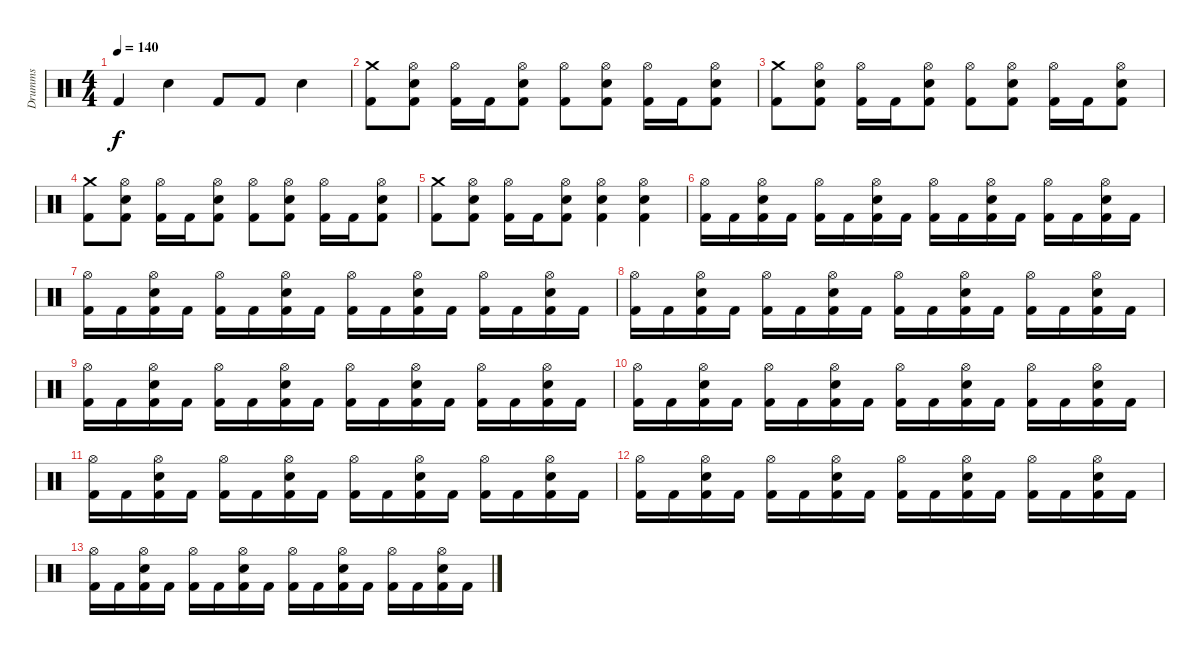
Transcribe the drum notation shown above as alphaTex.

\track ("Drumms" "Drumms") {instrument percussion}
\staff {score}
\articulation defaults
\ts (4 4)
\tempo 140
\clef neutral
\ks c "Kick (hit) 2".4{dy f} "Electric Snare (hit)".4 "Kick (hit) 2".8 "Kick (hit) 2".8 "Electric Snare (hit)".4
|
("Crash medium (hit)" "Kick (hit) 2").8 ("Hi-Hat (open)" "Electric Snare (hit)" "Kick (hit) 2").8 ("Hi-Hat (open)" "Kick (hit) 2").16 "Kick (hit) 2".16 ("Hi-Hat (open)" "Electric Snare (hit)" "Kick (hit) 2").8 ("Hi-Hat (open)" "Kick (hit) 2").8 ("Hi-Hat (open)" "Electric Snare (hit)" "Kick (hit) 2").8 ("Hi-Hat (open)" "Kick (hit) 2").16 "Kick (hit) 2".16 ("Hi-Hat (open)" "Electric Snare (hit)" "Kick (hit) 2").8 |
("Crash medium (hit)" "Kick (hit) 2").8 ("Hi-Hat (open)" "Electric Snare (hit)" "Kick (hit) 2").8 ("Hi-Hat (open)" "Kick (hit) 2").16 "Kick (hit) 2".16 ("Hi-Hat (open)" "Electric Snare (hit)" "Kick (hit) 2").8 ("Hi-Hat (open)" "Kick (hit) 2").8 ("Hi-Hat (open)" "Electric Snare (hit)" "Kick (hit) 2").8 ("Hi-Hat (open)" "Kick (hit) 2").16 "Kick (hit) 2".16 ("Hi-Hat (open)" "Electric Snare (hit)" "Kick (hit) 2").8 |
("Crash medium (hit)" "Kick (hit) 2").8 ("Hi-Hat (open)" "Electric Snare (hit)" "Kick (hit) 2").8 ("Hi-Hat (open)" "Kick (hit) 2").16 "Kick (hit) 2".16 ("Hi-Hat (open)" "Electric Snare (hit)" "Kick (hit) 2").8 ("Hi-Hat (open)" "Kick (hit) 2").8 ("Hi-Hat (open)" "Electric Snare (hit)" "Kick (hit) 2").8 ("Hi-Hat (open)" "Kick (hit) 2").16 "Kick (hit) 2".16 ("Hi-Hat (open)" "Electric Snare (hit)" "Kick (hit) 2").8 |
("Crash medium (hit)" "Kick (hit) 2").8 ("Hi-Hat (open)" "Electric Snare (hit)" "Kick (hit) 2").8 ("Hi-Hat (open)" "Kick (hit) 2").16 "Kick (hit) 2".16 ("Hi-Hat (open)" "Electric Snare (hit)" "Kick (hit) 2").8 ("Hi-Hat (open)" "Electric Snare (hit)" "Kick (hit) 2").4 ("Hi-Hat (open)" "Electric Snare (hit)" "Kick (hit) 2").4 |
("Hi-Hat (open)" "Kick (hit) 2").16 "Kick (hit) 2".16 ("Hi-Hat (open)" "Electric Snare (hit)" "Kick (hit) 2").16 "Kick (hit) 2".16 ("Hi-Hat (open)" "Kick (hit) 2").16 "Kick (hit) 2".16 ("Hi-Hat (open)" "Electric Snare (hit)" "Kick (hit) 2").16 "Kick (hit) 2".16 ("Hi-Hat (open)" "Kick (hit) 2").16 "Kick (hit) 2".16 ("Hi-Hat (open)" "Electric Snare (hit)" "Kick (hit) 2").16 "Kick (hit) 2".16 ("Hi-Hat (open)" "Kick (hit) 2").16 "Kick (hit) 2".16 ("Hi-Hat (open)" "Electric Snare (hit)" "Kick (hit) 2").16 "Kick (hit) 2".16 |
("Hi-Hat (open)" "Kick (hit) 2").16 "Kick (hit) 2".16 ("Hi-Hat (open)" "Electric Snare (hit)" "Kick (hit) 2").16 "Kick (hit) 2".16 ("Hi-Hat (open)" "Kick (hit) 2").16 "Kick (hit) 2".16 ("Hi-Hat (open)" "Electric Snare (hit)" "Kick (hit) 2").16 "Kick (hit) 2".16 ("Hi-Hat (open)" "Kick (hit) 2").16 "Kick (hit) 2".16 ("Hi-Hat (open)" "Electric Snare (hit)" "Kick (hit) 2").16 "Kick (hit) 2".16 ("Hi-Hat (open)" "Kick (hit) 2").16 "Kick (hit) 2".16 ("Hi-Hat (open)" "Electric Snare (hit)" "Kick (hit) 2").16 "Kick (hit) 2".16 |
("Hi-Hat (open)" "Kick (hit) 2").16 "Kick (hit) 2".16 ("Hi-Hat (open)" "Electric Snare (hit)" "Kick (hit) 2").16 "Kick (hit) 2".16 ("Hi-Hat (open)" "Kick (hit) 2").16 "Kick (hit) 2".16 ("Hi-Hat (open)" "Electric Snare (hit)" "Kick (hit) 2").16 "Kick (hit) 2".16 ("Hi-Hat (open)" "Kick (hit) 2").16 "Kick (hit) 2".16 ("Hi-Hat (open)" "Electric Snare (hit)" "Kick (hit) 2").16 "Kick (hit) 2".16 ("Hi-Hat (open)" "Kick (hit) 2").16 "Kick (hit) 2".16 ("Hi-Hat (open)" "Electric Snare (hit)" "Kick (hit) 2").16 "Kick (hit) 2".16 |
("Hi-Hat (open)" "Kick (hit) 2").16 "Kick (hit) 2".16 ("Hi-Hat (open)" "Electric Snare (hit)" "Kick (hit) 2").16 "Kick (hit) 2".16 ("Hi-Hat (open)" "Kick (hit) 2").16 "Kick (hit) 2".16 ("Hi-Hat (open)" "Electric Snare (hit)" "Kick (hit) 2").16 "Kick (hit) 2".16 ("Hi-Hat (open)" "Kick (hit) 2").16 "Kick (hit) 2".16 ("Hi-Hat (open)" "Electric Snare (hit)" "Kick (hit) 2").16 "Kick (hit) 2".16 ("Hi-Hat (open)" "Kick (hit) 2").16 "Kick (hit) 2".16 ("Hi-Hat (open)" "Electric Snare (hit)" "Kick (hit) 2").16 "Kick (hit) 2".16 |
("Hi-Hat (open)" "Kick (hit) 2").16 "Kick (hit) 2".16 ("Hi-Hat (open)" "Electric Snare (hit)" "Kick (hit) 2").16 "Kick (hit) 2".16 ("Hi-Hat (open)" "Kick (hit) 2").16 "Kick (hit) 2".16 ("Hi-Hat (open)" "Electric Snare (hit)" "Kick (hit) 2").16 "Kick (hit) 2".16 ("Hi-Hat (open)" "Kick (hit) 2").16 "Kick (hit) 2".16 ("Hi-Hat (open)" "Electric Snare (hit)" "Kick (hit) 2").16 "Kick (hit) 2".16 ("Hi-Hat (open)" "Kick (hit) 2").16 "Kick (hit) 2".16 ("Hi-Hat (open)" "Electric Snare (hit)" "Kick (hit) 2").16 "Kick (hit) 2".16 |
("Hi-Hat (open)" "Kick (hit) 2").16 "Kick (hit) 2".16 ("Hi-Hat (open)" "Electric Snare (hit)" "Kick (hit) 2").16 "Kick (hit) 2".16 ("Hi-Hat (open)" "Kick (hit) 2").16 "Kick (hit) 2".16 ("Hi-Hat (open)" "Electric Snare (hit)" "Kick (hit) 2").16 "Kick (hit) 2".16 ("Hi-Hat (open)" "Kick (hit) 2").16 "Kick (hit) 2".16 ("Hi-Hat (open)" "Electric Snare (hit)" "Kick (hit) 2").16 "Kick (hit) 2".16 ("Hi-Hat (open)" "Kick (hit) 2").16 "Kick (hit) 2".16 ("Hi-Hat (open)" "Electric Snare (hit)" "Kick (hit) 2").16 "Kick (hit) 2".16 |
("Hi-Hat (open)" "Kick (hit) 2").16 "Kick (hit) 2".16 ("Hi-Hat (open)" "Electric Snare (hit)" "Kick (hit) 2").16 "Kick (hit) 2".16 ("Hi-Hat (open)" "Kick (hit) 2").16 "Kick (hit) 2".16 ("Hi-Hat (open)" "Electric Snare (hit)" "Kick (hit) 2").16 "Kick (hit) 2".16 ("Hi-Hat (open)" "Kick (hit) 2").16 "Kick (hit) 2".16 ("Hi-Hat (open)" "Electric Snare (hit)" "Kick (hit) 2").16 "Kick (hit) 2".16 ("Hi-Hat (open)" "Kick (hit) 2").16 "Kick (hit) 2".16 ("Hi-Hat (open)" "Electric Snare (hit)" "Kick (hit) 2").16 "Kick (hit) 2".16 |
("Hi-Hat (open)" "Kick (hit) 2").16 "Kick (hit) 2".16 ("Hi-Hat (open)" "Electric Snare (hit)" "Kick (hit) 2").16 "Kick (hit) 2".16 ("Hi-Hat (open)" "Kick (hit) 2").16 "Kick (hit) 2".16 ("Hi-Hat (open)" "Electric Snare (hit)" "Kick (hit) 2").16 "Kick (hit) 2".16 ("Hi-Hat (open)" "Kick (hit) 2").16 "Kick (hit) 2".16 ("Hi-Hat (open)" "Electric Snare (hit)" "Kick (hit) 2").16 "Kick (hit) 2".16 ("Hi-Hat (open)" "Kick (hit) 2").16 "Kick (hit) 2".16 ("Hi-Hat (open)" "Electric Snare (hit)" "Kick (hit) 2").16 "Kick (hit) 2".16
